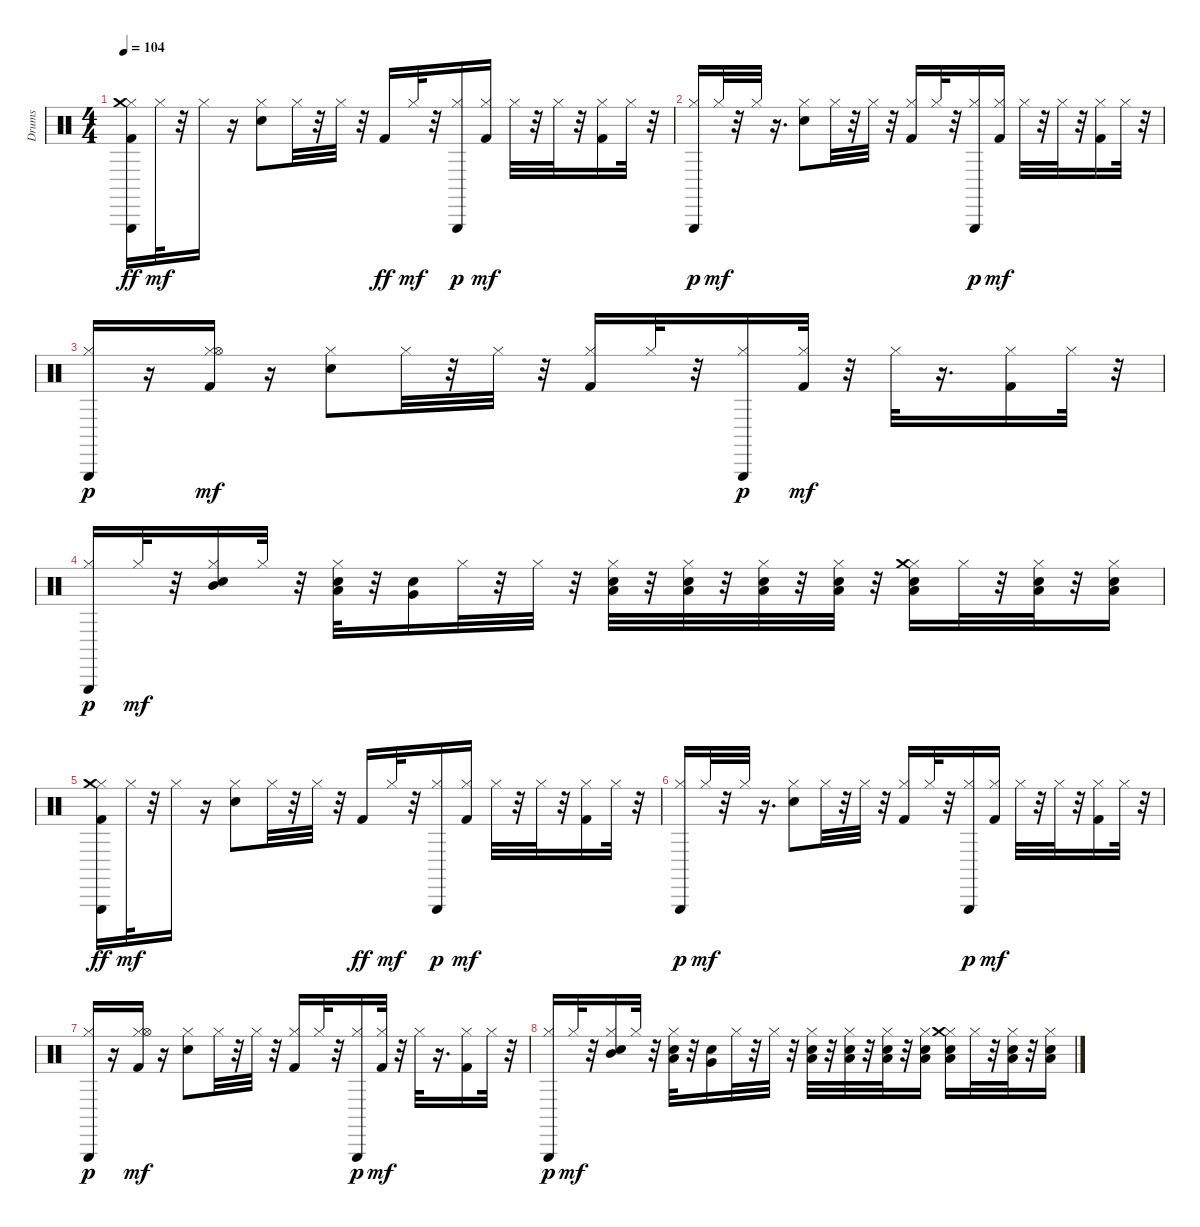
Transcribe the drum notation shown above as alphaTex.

\track ("Drums" "Drums") {instrument percussion}
\staff {score}
\articulation defaults
\ts (4 4)
\tempo 104
\clef neutral
\ks c
("Kick (hit) 2" "Hi-Hat (closed)" "Triangle (hit)" "Crash medium (hit)").16{dy ff} "Hi-Hat (closed)".32{dy mf} r.32 "Hi-Hat (closed)".16 r.16 ("Hi-Hat (closed)" "Snare (hit) 2").8 "Hi-Hat (closed)".32 r.32 "Hi-Hat (closed)".32 r.32 "Kick (hit) 2".16{dy ff} "Hi-Hat (closed)".32{dy mf} r.32 ("Hi-Hat (closed)" "Triangle (hit)").16{dy p} ("Kick (hit) 2" "Hi-Hat (closed)").16{dy mf} "Hi-Hat (closed)".32 r.32 "Hi-Hat (closed)".32 r.32 ("Kick (hit) 2" "Hi-Hat (closed)").16 "Hi-Hat (closed)".32 r.32 |
("Hi-Hat (closed)" "Triangle (hit)").16{dy p} "Hi-Hat (closed)".32{dy mf} r.32 "Hi-Hat (closed)".32 r.16{d} ("Hi-Hat (closed)" "Snare (hit) 2").8 "Hi-Hat (closed)".32 r.32 "Hi-Hat (closed)".32 r.32 ("Kick (hit) 2" "Hi-Hat (closed)").16 "Hi-Hat (closed)".32 r.32 ("Hi-Hat (closed)" "Triangle (hit)").16{dy p} ("Kick (hit) 2" "Hi-Hat (closed)").16{dy mf} "Hi-Hat (closed)".32 r.32 "Hi-Hat (closed)".32 r.32 ("Kick (hit) 2" "Hi-Hat (closed)").16 "Hi-Hat (closed)".32 r.32 |
("Hi-Hat (closed)" "Triangle (hit)").16{dy p} r.16 ("Kick (hit) 2" "Hi-Hat (closed)" "Hi-Hat (open)").16{dy mf} r.16 ("Hi-Hat (closed)" "Snare (hit) 2").8 "Hi-Hat (closed)".32 r.32 "Hi-Hat (closed)".32 r.32 ("Kick (hit) 2" "Hi-Hat (closed)").16 "Hi-Hat (closed)".32 r.32 ("Hi-Hat (closed)" "Triangle (hit)").16{dy p} ("Kick (hit) 2" "Hi-Hat (closed)").32{dy mf} r.32 "Hi-Hat (closed)".32 r.16{d} ("Kick (hit) 2" "Hi-Hat (closed)").16 "Hi-Hat (closed)".32 r.32 |
("Hi-Hat (closed)" "Triangle (hit)").16{dy p} "Hi-Hat (closed)".32{dy mf} r.32 ("Hi-Hat (closed)" "Snare (hit) 2" "Mid Tom (hit)").16 "Hi-Hat (closed)".32 r.32 ("Hi-Hat (closed)" "Snare (hit) 2" "Low Tom (hit)").32 r.32 ("Snare (hit) 2" "Very Low Tom (hit)").16 "Hi-Hat (closed)".32 r.32 "Hi-Hat (closed)".32 r.32 ("Hi-Hat (closed)" "Snare (hit) 2" "Low Floor Tom (hit)").32 r.32 ("Hi-Hat (closed)" "Snare (hit) 2" "Low Floor Tom (hit)").32 r.32 ("Hi-Hat (closed)" "Snare (hit) 2" "Low Floor Tom (hit)").32 r.32 ("Hi-Hat (closed)" "Snare (hit) 2" "Low Floor Tom (hit)").32 r.32 ("Hi-Hat (closed)" "Snare (hit) 2" "Low Floor Tom (hit)" "Crash medium (hit)").16 "Hi-Hat (closed)".32 r.32 ("Hi-Hat (closed)" "Snare (hit) 2" "Low Floor Tom (hit)").32 r.32 ("Hi-Hat (closed)" "Snare (hit) 2" "Low Floor Tom (hit)").16 |
("Kick (hit) 2" "Hi-Hat (closed)" "Triangle (hit)" "Crash medium (hit)").16{dy ff} "Hi-Hat (closed)".32{dy mf} r.32 "Hi-Hat (closed)".16 r.16 ("Hi-Hat (closed)" "Snare (hit) 2").8 "Hi-Hat (closed)".32 r.32 "Hi-Hat (closed)".32 r.32 "Kick (hit) 2".16{dy ff} "Hi-Hat (closed)".32{dy mf} r.32 ("Hi-Hat (closed)" "Triangle (hit)").16{dy p} ("Kick (hit) 2" "Hi-Hat (closed)").16{dy mf} "Hi-Hat (closed)".32 r.32 "Hi-Hat (closed)".32 r.32 ("Kick (hit) 2" "Hi-Hat (closed)").16 "Hi-Hat (closed)".32 r.32 |
("Hi-Hat (closed)" "Triangle (hit)").16{dy p} "Hi-Hat (closed)".32{dy mf} r.32 "Hi-Hat (closed)".32 r.16{d} ("Hi-Hat (closed)" "Snare (hit) 2").8 "Hi-Hat (closed)".32 r.32 "Hi-Hat (closed)".32 r.32 ("Kick (hit) 2" "Hi-Hat (closed)").16 "Hi-Hat (closed)".32 r.32 ("Hi-Hat (closed)" "Triangle (hit)").16{dy p} ("Kick (hit) 2" "Hi-Hat (closed)").16{dy mf} "Hi-Hat (closed)".32 r.32 "Hi-Hat (closed)".32 r.32 ("Kick (hit) 2" "Hi-Hat (closed)").16 "Hi-Hat (closed)".32 r.32 |
("Hi-Hat (closed)" "Triangle (hit)").16{dy p} r.16 ("Kick (hit) 2" "Hi-Hat (closed)" "Hi-Hat (open)").16{dy mf} r.16 ("Hi-Hat (closed)" "Snare (hit) 2").8 "Hi-Hat (closed)".32 r.32 "Hi-Hat (closed)".32 r.32 ("Kick (hit) 2" "Hi-Hat (closed)").16 "Hi-Hat (closed)".32 r.32 ("Hi-Hat (closed)" "Triangle (hit)").16{dy p} ("Kick (hit) 2" "Hi-Hat (closed)").32{dy mf} r.32 "Hi-Hat (closed)".32 r.16{d} ("Kick (hit) 2" "Hi-Hat (closed)").16 "Hi-Hat (closed)".32 r.32 |
("Hi-Hat (closed)" "Triangle (hit)").16{dy p} "Hi-Hat (closed)".32{dy mf} r.32 ("Hi-Hat (closed)" "Snare (hit) 2" "Mid Tom (hit)").16 "Hi-Hat (closed)".32 r.32 ("Hi-Hat (closed)" "Snare (hit) 2" "Low Tom (hit)").32 r.32 ("Snare (hit) 2" "Very Low Tom (hit)").16 "Hi-Hat (closed)".32 r.32 "Hi-Hat (closed)".32 r.32 ("Hi-Hat (closed)" "Snare (hit) 2" "Low Floor Tom (hit)").32 r.32 ("Hi-Hat (closed)" "Snare (hit) 2" "Low Floor Tom (hit)").32 r.32 ("Hi-Hat (closed)" "Snare (hit) 2" "Low Floor Tom (hit)").32 r.32 ("Hi-Hat (closed)" "Snare (hit) 2" "Low Floor Tom (hit)").16 ("Hi-Hat (closed)" "Snare (hit) 2" "Low Floor Tom (hit)" "Crash medium (hit)").16 "Hi-Hat (closed)".32 r.32 ("Hi-Hat (closed)" "Snare (hit) 2" "Low Floor Tom (hit)").32 r.32 ("Hi-Hat (closed)" "Snare (hit) 2" "Low Floor Tom (hit)").16
